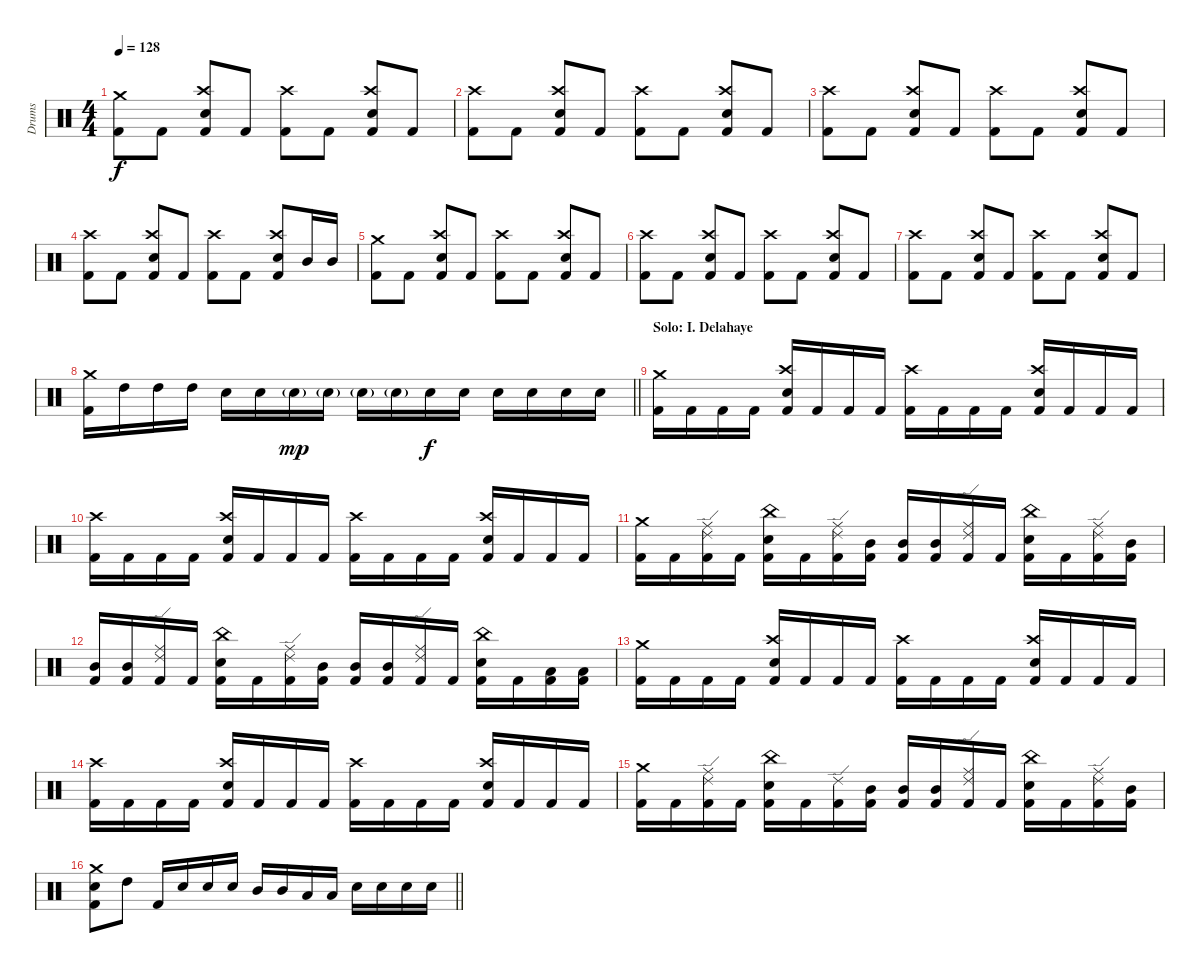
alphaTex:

\track ("Drums" "Drums") {instrument percussion}
\staff {score}
\articulation defaults
\ts (4 4)
\section ("" "")
\tempo 128
\clef neutral
\ks c
("Crash medium (hit)" "Kick (hit) 2").8{dy f} "Kick (hit) 2".8 ("Crash high (hit)" "Electric Snare (hit)" "Kick (hit) 2").8 "Kick (hit) 2".8 ("Crash high (hit)" "Kick (hit) 2").8 "Kick (hit) 2".8 ("Crash high (hit)" "Electric Snare (hit)" "Kick (hit) 2").8 "Kick (hit) 2".8 |
("Crash high (hit)" "Kick (hit) 2").8 "Kick (hit) 2".8 ("Crash high (hit)" "Electric Snare (hit)" "Kick (hit) 2").8 "Kick (hit) 2".8 ("Crash high (hit)" "Kick (hit) 2").8 "Kick (hit) 2".8 ("Crash high (hit)" "Electric Snare (hit)" "Kick (hit) 2").8 "Kick (hit) 2".8 |
("Crash high (hit)" "Kick (hit) 2").8 "Kick (hit) 2".8 ("Crash high (hit)" "Electric Snare (hit)" "Kick (hit) 2").8 "Kick (hit) 2".8 ("Crash high (hit)" "Kick (hit) 2").8 "Kick (hit) 2".8 ("Crash high (hit)" "Electric Snare (hit)" "Kick (hit) 2").8 "Kick (hit) 2".8 |
("Crash high (hit)" "Kick (hit) 2").8 "Kick (hit) 2".8 ("Crash high (hit)" "Electric Snare (hit)" "Kick (hit) 2").8 "Kick (hit) 2".8 ("Crash high (hit)" "Kick (hit) 2").8 "Kick (hit) 2".8 ("Crash high (hit)" "Electric Snare (hit)" "Kick (hit) 2").8 "Mid Tom (hit)".16 "Mid Tom (hit)".16 |
("Crash medium (hit)" "Kick (hit) 2").8 "Kick (hit) 2".8 ("Crash high (hit)" "Electric Snare (hit)" "Kick (hit) 2").8 "Kick (hit) 2".8 ("Crash high (hit)" "Kick (hit) 2").8 "Kick (hit) 2".8 ("Crash high (hit)" "Electric Snare (hit)" "Kick (hit) 2").8 "Kick (hit) 2".8 |
("Crash high (hit)" "Kick (hit) 2").8 "Kick (hit) 2".8 ("Crash high (hit)" "Electric Snare (hit)" "Kick (hit) 2").8 "Kick (hit) 2".8 ("Crash high (hit)" "Kick (hit) 2").8 "Kick (hit) 2".8 ("Crash high (hit)" "Electric Snare (hit)" "Kick (hit) 2").8 "Kick (hit) 2".8 |
("Crash high (hit)" "Kick (hit) 2").8 "Kick (hit) 2".8 ("Crash high (hit)" "Electric Snare (hit)" "Kick (hit) 2").8 "Kick (hit) 2".8 ("Crash high (hit)" "Kick (hit) 2").8 "Kick (hit) 2".8 ("Crash high (hit)" "Electric Snare (hit)" "Kick (hit) 2").8 "Kick (hit) 2".8 |
\barLineRight lightlight
("Crash medium (hit)" "Kick (hit) 2").16 "High Tom (hit)".16 "High Tom (hit)".16 "High Tom (hit)".16 "Electric Snare (hit)".16 "Electric Snare (hit)".16 "Electric Snare (hit)"{g}.16{dy mp} "Electric Snare (hit)"{g}.16 "Electric Snare (hit)"{g}.16 "Electric Snare (hit)"{g}.16 "Electric Snare (hit)".16{dy f} "Electric Snare (hit)".16 "Electric Snare (hit)".16 "Electric Snare (hit)".16 "Electric Snare (hit)".16 "Electric Snare (hit)".16 |
\section ("" "Solo: I. Delahaye")
("Crash medium (hit)" "Kick (hit) 2").16 "Kick (hit) 2".16 "Kick (hit) 2".16 "Kick (hit) 2".16 ("Crash high (hit)" "Electric Snare (hit)" "Kick (hit) 2").16 "Kick (hit) 2".16 "Kick (hit) 2".16 "Kick (hit) 2".16 ("Crash high (hit)" "Kick (hit) 2").16 "Kick (hit) 2".16 "Kick (hit) 2".16 "Kick (hit) 2".16 ("Crash high (hit)" "Electric Snare (hit)" "Kick (hit) 2").16 "Kick (hit) 2".16 "Kick (hit) 2".16 "Kick (hit) 2".16 |
("Crash high (hit)" "Kick (hit) 2").16 "Kick (hit) 2".16 "Kick (hit) 2".16 "Kick (hit) 2".16 ("Crash high (hit)" "Electric Snare (hit)" "Kick (hit) 2").16 "Kick (hit) 2".16 "Kick (hit) 2".16 "Kick (hit) 2".16 ("Crash high (hit)" "Kick (hit) 2").16 "Kick (hit) 2".16 "Kick (hit) 2".16 "Kick (hit) 2".16 ("Crash high (hit)" "Electric Snare (hit)" "Kick (hit) 2").16 "Kick (hit) 2".16 "Kick (hit) 2".16 "Kick (hit) 2".16 |
("Crash medium (hit)" "Kick (hit) 2").16 "Kick (hit) 2".16 ("Ride (middle)" "Ride (edge) 2" "Kick (hit) 2").16 "Kick (hit) 2".16 ("China (hit)" "Electric Snare (hit)" "Kick (hit) 2").16 "Kick (hit) 2".16 ("Ride (middle)" "Ride (edge) 2" "Kick (hit) 2").16 ("Mid Tom (hit)" "Kick (hit) 2").16 ("Mid Tom (hit)" "Kick (hit) 2").16 ("Mid Tom (hit)" "Kick (hit) 2").16 ("Ride (middle)" "Ride (edge) 2" "Kick (hit) 2").16 "Kick (hit) 2".16 ("China (hit)" "Electric Snare (hit)" "Kick (hit) 2").16 "Kick (hit) 2".16 ("Ride (middle)" "Ride (edge) 2" "Kick (hit) 2").16 ("Mid Tom (hit)" "Kick (hit) 2").16 |
("Mid Tom (hit)" "Kick (hit) 2").16 ("Mid Tom (hit)" "Kick (hit) 2").16 ("Ride (middle)" "Ride (edge) 2" "Kick (hit) 2").16 "Kick (hit) 2".16 ("China (hit)" "Electric Snare (hit)" "Kick (hit) 2").16 "Kick (hit) 2".16 ("Ride (middle)" "Ride (edge) 2" "Kick (hit) 2").16 ("Mid Tom (hit)" "Kick (hit) 2").16 ("Mid Tom (hit)" "Kick (hit) 2").16 ("Mid Tom (hit)" "Kick (hit) 2").16 ("Ride (middle)" "Ride (edge) 2" "Kick (hit) 2").16 "Kick (hit) 2".16 ("China (hit)" "Electric Snare (hit)" "Kick (hit) 2").16 "Kick (hit) 2".16 ("Low Tom (hit)" "Kick (hit) 2").16 ("Low Tom (hit)" "Kick (hit) 2").16 |
("Crash medium (hit)" "Kick (hit) 2").16 "Kick (hit) 2".16 "Kick (hit) 2".16 "Kick (hit) 2".16 ("Crash high (hit)" "Electric Snare (hit)" "Kick (hit) 2").16 "Kick (hit) 2".16 "Kick (hit) 2".16 "Kick (hit) 2".16 ("Crash high (hit)" "Kick (hit) 2").16 "Kick (hit) 2".16 "Kick (hit) 2".16 "Kick (hit) 2".16 ("Crash high (hit)" "Electric Snare (hit)" "Kick (hit) 2").16 "Kick (hit) 2".16 "Kick (hit) 2".16 "Kick (hit) 2".16 |
("Crash high (hit)" "Kick (hit) 2").16 "Kick (hit) 2".16 "Kick (hit) 2".16 "Kick (hit) 2".16 ("Crash high (hit)" "Electric Snare (hit)" "Kick (hit) 2").16 "Kick (hit) 2".16 "Kick (hit) 2".16 "Kick (hit) 2".16 ("Crash high (hit)" "Kick (hit) 2").16 "Kick (hit) 2".16 "Kick (hit) 2".16 "Kick (hit) 2".16 ("Crash high (hit)" "Electric Snare (hit)" "Kick (hit) 2").16 "Kick (hit) 2".16 "Kick (hit) 2".16 "Kick (hit) 2".16 |
("Crash medium (hit)" "Kick (hit) 2").16 "Kick (hit) 2".16 ("Ride (middle)" "Ride (edge) 2" "Kick (hit) 2").16 "Kick (hit) 2".16 ("China (hit)" "Electric Snare (hit)" "Kick (hit) 2").16 "Kick (hit) 2".16 ("Ride (edge) 2" "Kick (hit) 2").16 ("Mid Tom (hit)" "Kick (hit) 2").16 ("Mid Tom (hit)" "Kick (hit) 2").16 ("Mid Tom (hit)" "Kick (hit) 2").16 ("Ride (middle)" "Ride (edge) 2" "Kick (hit) 2").16 "Kick (hit) 2".16 ("China (hit)" "Electric Snare (hit)" "Kick (hit) 2").16 "Kick (hit) 2".16 ("Ride (middle)" "Ride (edge) 2" "Kick (hit) 2").16 ("Mid Tom (hit)" "Kick (hit) 2").16 |
\barLineRight lightlight
("Crash medium (hit)" "Electric Snare (hit)" "Kick (hit) 2").8 "High Tom (hit)".8 "Kick (hit) 2".16 "Electric Snare (hit)".16 "Electric Snare (hit)".16 "Electric Snare (hit)".16 "Mid Tom (hit)".16 "Mid Tom (hit)".16 "Low Tom (hit)".16 "Low Tom (hit)".16 "Electric Snare (hit)".16 "Electric Snare (hit)".16 "Electric Snare (hit)".16 "Electric Snare (hit)".16
